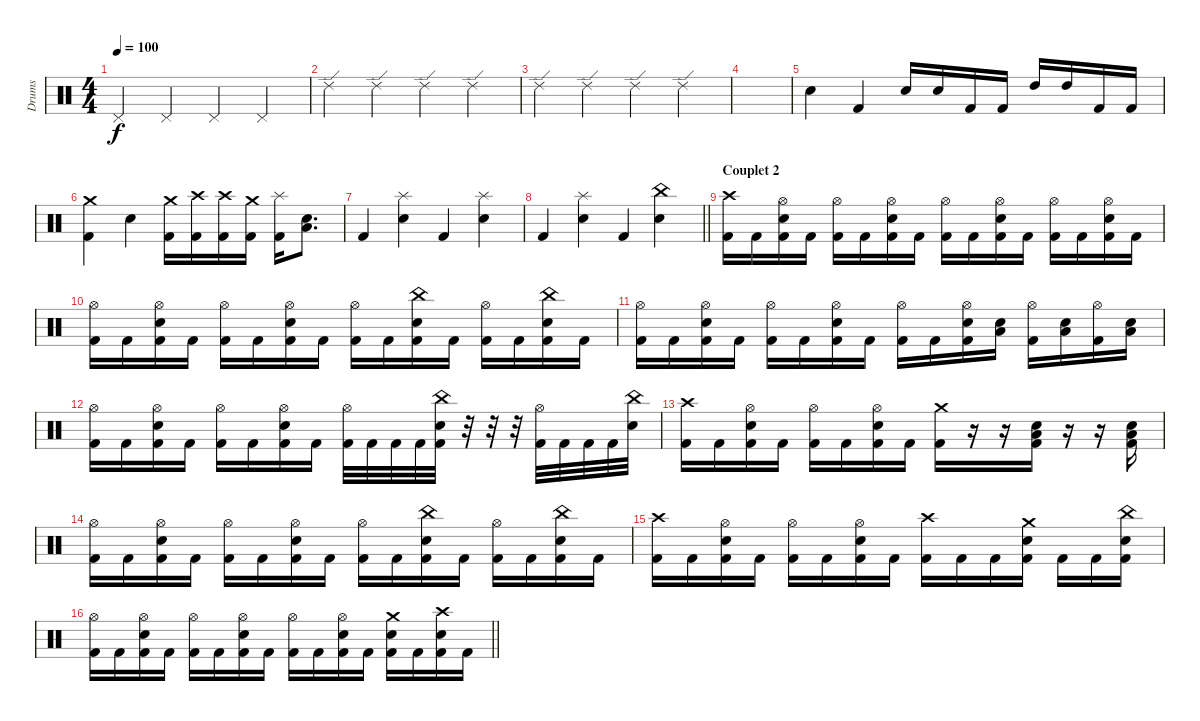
\track ("Drums" "Drums") {instrument percussion}
\staff {score}
\articulation defaults
\ts (4 4)
\tempo 100
\clef neutral
\ks c "Pedal Hi-Hat (hit)".4{dy f} "Pedal Hi-Hat (hit)".4 "Pedal Hi-Hat (hit)".4 "Pedal Hi-Hat (hit)".4
|
"Ride (edge) 2".4 "Ride (edge) 2".4 "Ride (edge) 2".4 "Ride (edge) 2".4 |
"Ride (edge) 2".4 "Ride (edge) 2".4 "Ride (edge) 2".4 "Ride (edge) 2".4 |
|
"Snare (hit) 2".4 "Kick (hit) 2".4 "Snare (hit) 2".16 "Snare (hit) 2".16 "Kick (hit) 2".16 "Kick (hit) 2".16 "High Tom (hit)".16 "High Tom (hit)".16 "Kick (hit) 2".16 "Kick (hit) 2".16 |
("Crash medium (hit)" "Kick (hit) 2").4 "Snare (hit) 2".4 ("Crash medium (hit)" "Kick (hit) 2").16 ("Crash high (hit)" "Kick (hit) 2").16 ("Crash high (hit)" "Kick (hit) 2").16 ("Crash medium (hit)" "Kick (hit) 2").16 ("Splash (hit)" "Kick (hit) 2").16 ("Low Tom (hit)" "Snare (hit) 2").8{d} |
"Kick (hit) 2".4 ("Splash (hit)" "Snare (hit) 2").4 "Kick (hit) 2".4 ("Splash (hit)" "Snare (hit) 2").4 |
\barLineRight lightlight "Kick (hit) 2".4
("Splash (hit)" "Snare (hit) 2").4 "Kick (hit) 2".4 ("China (hit)" "Snare (hit) 2").4 |
\section ("" "Couplet 2")
("Crash high (hit)" "Kick (hit) 2").16 "Kick (hit) 2".16 ("Hi-Hat (open)" "Snare (hit) 2" "Kick (hit) 2").16 "Kick (hit) 2".16 ("Hi-Hat (open)" "Kick (hit) 2").16 "Kick (hit) 2".16 ("Hi-Hat (open)" "Snare (hit) 2" "Kick (hit) 2").16 "Kick (hit) 2".16 ("Hi-Hat (open)" "Kick (hit) 2").16 "Kick (hit) 2".16 ("Hi-Hat (open)" "Snare (hit) 2" "Kick (hit) 2").16 "Kick (hit) 2".16 ("Hi-Hat (open)" "Kick (hit) 2").16 "Kick (hit) 2".16 ("Hi-Hat (open)" "Snare (hit) 2" "Kick (hit) 2").16 "Kick (hit) 2".16 |
("Hi-Hat (open)" "Kick (hit) 2").16 "Kick (hit) 2".16 ("Hi-Hat (open)" "Snare (hit) 2" "Kick (hit) 2").16 "Kick (hit) 2".16 ("Hi-Hat (open)" "Kick (hit) 2").16 "Kick (hit) 2".16 ("Hi-Hat (open)" "Snare (hit) 2" "Kick (hit) 2").16 "Kick (hit) 2".16 ("Hi-Hat (open)" "Kick (hit) 2").16 "Kick (hit) 2".16 ("China (hit)" "Snare (hit) 2" "Kick (hit) 2").16 "Kick (hit) 2".16 ("Hi-Hat (open)" "Kick (hit) 2").16 "Kick (hit) 2".16 ("China (hit)" "Snare (hit) 2" "Kick (hit) 2").16 "Kick (hit) 2".16 |
("Hi-Hat (open)" "Kick (hit) 2").16 "Kick (hit) 2".16 ("Hi-Hat (open)" "Snare (hit) 2" "Kick (hit) 2").16 "Kick (hit) 2".16 ("Hi-Hat (open)" "Kick (hit) 2").16 "Kick (hit) 2".16 ("Hi-Hat (open)" "Snare (hit) 2" "Kick (hit) 2").16 "Kick (hit) 2".16 ("Hi-Hat (open)" "Kick (hit) 2").16 "Kick (hit) 2".16 ("Hi-Hat (open)" "Snare (hit) 2" "Kick (hit) 2").16 ("Snare (hit) 2" "Low Floor Tom (hit)").16 ("Hi-Hat (open)" "Kick (hit) 2").16 ("Snare (hit) 2" "Low Floor Tom (hit)").16 ("Hi-Hat (open)" "Kick (hit) 2").16 ("Snare (hit) 2" "Low Floor Tom (hit)").16 |
("Hi-Hat (open)" "Kick (hit) 2").16 "Kick (hit) 2".16 ("Hi-Hat (open)" "Snare (hit) 2" "Kick (hit) 2").16 "Kick (hit) 2".16 ("Hi-Hat (open)" "Kick (hit) 2").16 "Kick (hit) 2".16 ("Hi-Hat (open)" "Snare (hit) 2" "Kick (hit) 2").16 "Kick (hit) 2".16 ("Hi-Hat (open)" "Kick (hit) 2").32 "Kick (hit) 2".32 "Kick (hit) 2".32 "Kick (hit) 2".32 ("China (hit)" "Snare (hit) 2" "Kick (hit) 2").32 r.32 r.32 r.32 ("Hi-Hat (open)" "Kick (hit) 2").32 "Kick (hit) 2".32 "Kick (hit) 2".32 "Kick (hit) 2".32 ("China (hit)" "Snare (hit) 2").32 |
("Crash high (hit)" "Kick (hit) 2").16 "Kick (hit) 2".16 ("Hi-Hat (open)" "Snare (hit) 2" "Kick (hit) 2").16 "Kick (hit) 2".16 ("Hi-Hat (open)" "Kick (hit) 2").16 "Kick (hit) 2".16 ("Hi-Hat (open)" "Snare (hit) 2" "Kick (hit) 2").16 "Kick (hit) 2".16 ("Crash medium (hit)" "Kick (hit) 2").16 r.16 r.16 ("Snare (hit) 2" "Low Floor Tom (hit)" "Kick (hit) 2").16 r.16 r.16 ("Snare (hit) 2" "Low Floor Tom (hit)" "Kick (hit) 2").16 |
("Hi-Hat (open)" "Kick (hit) 2").16 "Kick (hit) 2".16 ("Hi-Hat (open)" "Snare (hit) 2" "Kick (hit) 2").16 "Kick (hit) 2".16 ("Hi-Hat (open)" "Kick (hit) 2").16 "Kick (hit) 2".16 ("Hi-Hat (open)" "Snare (hit) 2" "Kick (hit) 2").16 "Kick (hit) 2".16 ("Hi-Hat (open)" "Kick (hit) 2").16 "Kick (hit) 2".16 ("China (hit)" "Snare (hit) 2" "Kick (hit) 2").16 "Kick (hit) 2".16 ("Hi-Hat (open)" "Kick (hit) 2").16 "Kick (hit) 2".16 ("China (hit)" "Snare (hit) 2" "Kick (hit) 2").16 "Kick (hit) 2".16 |
("Crash high (hit)" "Kick (hit) 2").16 "Kick (hit) 2".16 ("Hi-Hat (open)" "Snare (hit) 2" "Kick (hit) 2").16 "Kick (hit) 2".16 ("Hi-Hat (open)" "Kick (hit) 2").16 "Kick (hit) 2".16 ("Hi-Hat (open)" "Snare (hit) 2" "Kick (hit) 2").16 "Kick (hit) 2".16 ("Crash high (hit)" "Kick (hit) 2").16 "Kick (hit) 2".16 "Kick (hit) 2".16 ("Snare (hit) 2" "Crash medium (hit)" "Kick (hit) 2").16 "Kick (hit) 2".16 "Kick (hit) 2".16 ("Snare (hit) 2" "China (hit)" "Kick (hit) 2").16 |
\barLineRight lightlight
("Hi-Hat (open)" "Kick (hit) 2").16 "Kick (hit) 2".16 ("Hi-Hat (open)" "Snare (hit) 2" "Kick (hit) 2").16 "Kick (hit) 2".16 ("Hi-Hat (open)" "Kick (hit) 2").16 "Kick (hit) 2".16 ("Hi-Hat (open)" "Snare (hit) 2" "Kick (hit) 2").16 "Kick (hit) 2".16 ("Hi-Hat (open)" "Kick (hit) 2").16 "Kick (hit) 2".16 ("Snare (hit) 2" "Hi-Hat (open)" "Kick (hit) 2").16 "Kick (hit) 2".16 ("Snare (hit) 2" "Crash medium (hit)" "Kick (hit) 2").16 "Kick (hit) 2".16 ("Snare (hit) 2" "Crash high (hit)" "Kick (hit) 2").16 "Kick (hit) 2".16
